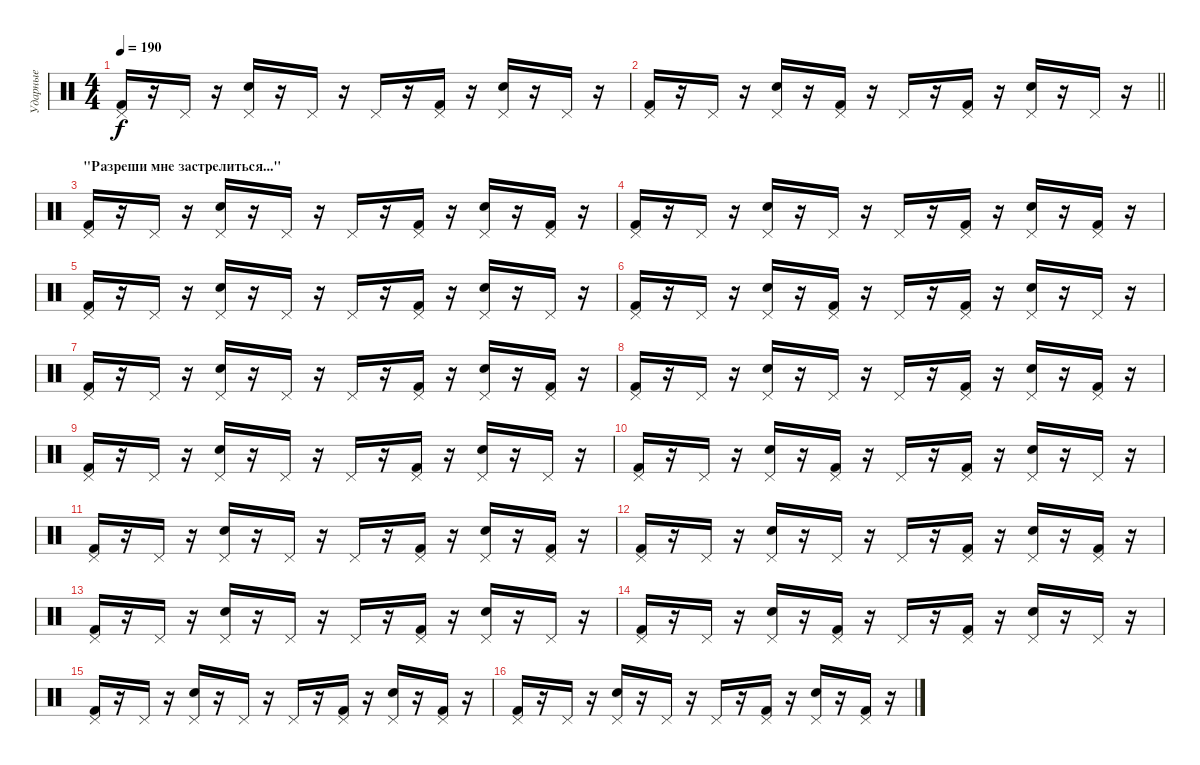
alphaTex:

\track ("Ударные" "Ударные") {instrument percussion}
\staff {score}
\articulation defaults
\ts (4 4)
\tempo 190
\clef neutral
\ks c
("Pedal Hi-Hat (hit)" "Kick (hit) 2").16{dy f} r.16 "Pedal Hi-Hat (hit)".16 r.16 ("Pedal Hi-Hat (hit)" "Electric Snare (hit)").16 r.16 "Pedal Hi-Hat (hit)".16 r.16 "Pedal Hi-Hat (hit)".16 r.16 ("Pedal Hi-Hat (hit)" "Kick (hit) 2").16 r.16 ("Pedal Hi-Hat (hit)" "Electric Snare (hit)").16 r.16 "Pedal Hi-Hat (hit)".16 r.16 |
\barLineRight lightlight
("Pedal Hi-Hat (hit)" "Kick (hit) 2").16 r.16 "Pedal Hi-Hat (hit)".16 r.16 ("Pedal Hi-Hat (hit)" "Electric Snare (hit)").16 r.16 ("Pedal Hi-Hat (hit)" "Kick (hit) 2").16 r.16 "Pedal Hi-Hat (hit)".16 r.16 ("Pedal Hi-Hat (hit)" "Kick (hit) 2").16 r.16 ("Pedal Hi-Hat (hit)" "Electric Snare (hit)").16 r.16 "Pedal Hi-Hat (hit)".16 r.16 |
\section ("" "\"Разреши мне застрелиться...\"")
("Pedal Hi-Hat (hit)" "Kick (hit) 2").16 r.16 "Pedal Hi-Hat (hit)".16 r.16 ("Pedal Hi-Hat (hit)" "Electric Snare (hit)").16 r.16 "Pedal Hi-Hat (hit)".16 r.16 "Pedal Hi-Hat (hit)".16 r.16 ("Pedal Hi-Hat (hit)" "Kick (hit) 2").16 r.16 ("Pedal Hi-Hat (hit)" "Electric Snare (hit)").16 r.16 ("Pedal Hi-Hat (hit)" "Kick (hit) 2").16 r.16 |
("Pedal Hi-Hat (hit)" "Kick (hit) 2").16 r.16 "Pedal Hi-Hat (hit)".16 r.16 ("Pedal Hi-Hat (hit)" "Electric Snare (hit)").16 r.16 "Pedal Hi-Hat (hit)".16 r.16 "Pedal Hi-Hat (hit)".16 r.16 ("Pedal Hi-Hat (hit)" "Kick (hit) 2").16 r.16 ("Pedal Hi-Hat (hit)" "Electric Snare (hit)").16 r.16 ("Pedal Hi-Hat (hit)" "Kick (hit) 2").16 r.16 |
("Pedal Hi-Hat (hit)" "Kick (hit) 2").16 r.16 "Pedal Hi-Hat (hit)".16 r.16 ("Pedal Hi-Hat (hit)" "Electric Snare (hit)").16 r.16 "Pedal Hi-Hat (hit)".16 r.16 "Pedal Hi-Hat (hit)".16 r.16 ("Pedal Hi-Hat (hit)" "Kick (hit) 2").16 r.16 ("Pedal Hi-Hat (hit)" "Electric Snare (hit)").16 r.16 "Pedal Hi-Hat (hit)".16 r.16 |
("Pedal Hi-Hat (hit)" "Kick (hit) 2").16 r.16 "Pedal Hi-Hat (hit)".16 r.16 ("Pedal Hi-Hat (hit)" "Electric Snare (hit)").16 r.16 ("Pedal Hi-Hat (hit)" "Kick (hit) 2").16 r.16 "Pedal Hi-Hat (hit)".16 r.16 ("Pedal Hi-Hat (hit)" "Kick (hit) 2").16 r.16 ("Pedal Hi-Hat (hit)" "Electric Snare (hit)").16 r.16 "Pedal Hi-Hat (hit)".16 r.16 |
("Pedal Hi-Hat (hit)" "Kick (hit) 2").16 r.16 "Pedal Hi-Hat (hit)".16 r.16 ("Pedal Hi-Hat (hit)" "Electric Snare (hit)").16 r.16 "Pedal Hi-Hat (hit)".16 r.16 "Pedal Hi-Hat (hit)".16 r.16 ("Pedal Hi-Hat (hit)" "Kick (hit) 2").16 r.16 ("Pedal Hi-Hat (hit)" "Electric Snare (hit)").16 r.16 ("Pedal Hi-Hat (hit)" "Kick (hit) 2").16 r.16 |
("Pedal Hi-Hat (hit)" "Kick (hit) 2").16 r.16 "Pedal Hi-Hat (hit)".16 r.16 ("Pedal Hi-Hat (hit)" "Electric Snare (hit)").16 r.16 "Pedal Hi-Hat (hit)".16 r.16 "Pedal Hi-Hat (hit)".16 r.16 ("Pedal Hi-Hat (hit)" "Kick (hit) 2").16 r.16 ("Pedal Hi-Hat (hit)" "Electric Snare (hit)").16 r.16 ("Pedal Hi-Hat (hit)" "Kick (hit) 2").16 r.16 |
("Pedal Hi-Hat (hit)" "Kick (hit) 2").16 r.16 "Pedal Hi-Hat (hit)".16 r.16 ("Pedal Hi-Hat (hit)" "Electric Snare (hit)").16 r.16 "Pedal Hi-Hat (hit)".16 r.16 "Pedal Hi-Hat (hit)".16 r.16 ("Pedal Hi-Hat (hit)" "Kick (hit) 2").16 r.16 ("Pedal Hi-Hat (hit)" "Electric Snare (hit)").16 r.16 "Pedal Hi-Hat (hit)".16 r.16 |
("Pedal Hi-Hat (hit)" "Kick (hit) 2").16 r.16 "Pedal Hi-Hat (hit)".16 r.16 ("Pedal Hi-Hat (hit)" "Electric Snare (hit)").16 r.16 ("Pedal Hi-Hat (hit)" "Kick (hit) 2").16 r.16 "Pedal Hi-Hat (hit)".16 r.16 ("Pedal Hi-Hat (hit)" "Kick (hit) 2").16 r.16 ("Pedal Hi-Hat (hit)" "Electric Snare (hit)").16 r.16 "Pedal Hi-Hat (hit)".16 r.16 |
("Pedal Hi-Hat (hit)" "Kick (hit) 2").16 r.16 "Pedal Hi-Hat (hit)".16 r.16 ("Pedal Hi-Hat (hit)" "Electric Snare (hit)").16 r.16 "Pedal Hi-Hat (hit)".16 r.16 "Pedal Hi-Hat (hit)".16 r.16 ("Pedal Hi-Hat (hit)" "Kick (hit) 2").16 r.16 ("Pedal Hi-Hat (hit)" "Electric Snare (hit)").16 r.16 ("Pedal Hi-Hat (hit)" "Kick (hit) 2").16 r.16 |
("Pedal Hi-Hat (hit)" "Kick (hit) 2").16 r.16 "Pedal Hi-Hat (hit)".16 r.16 ("Pedal Hi-Hat (hit)" "Electric Snare (hit)").16 r.16 "Pedal Hi-Hat (hit)".16 r.16 "Pedal Hi-Hat (hit)".16 r.16 ("Pedal Hi-Hat (hit)" "Kick (hit) 2").16 r.16 ("Pedal Hi-Hat (hit)" "Electric Snare (hit)").16 r.16 ("Pedal Hi-Hat (hit)" "Kick (hit) 2").16 r.16 |
("Pedal Hi-Hat (hit)" "Kick (hit) 2").16 r.16 "Pedal Hi-Hat (hit)".16 r.16 ("Pedal Hi-Hat (hit)" "Electric Snare (hit)").16 r.16 "Pedal Hi-Hat (hit)".16 r.16 "Pedal Hi-Hat (hit)".16 r.16 ("Pedal Hi-Hat (hit)" "Kick (hit) 2").16 r.16 ("Pedal Hi-Hat (hit)" "Electric Snare (hit)").16 r.16 "Pedal Hi-Hat (hit)".16 r.16 |
("Pedal Hi-Hat (hit)" "Kick (hit) 2").16 r.16 "Pedal Hi-Hat (hit)".16 r.16 ("Pedal Hi-Hat (hit)" "Electric Snare (hit)").16 r.16 ("Pedal Hi-Hat (hit)" "Kick (hit) 2").16 r.16 "Pedal Hi-Hat (hit)".16 r.16 ("Pedal Hi-Hat (hit)" "Kick (hit) 2").16 r.16 ("Pedal Hi-Hat (hit)" "Electric Snare (hit)").16 r.16 "Pedal Hi-Hat (hit)".16 r.16 |
("Pedal Hi-Hat (hit)" "Kick (hit) 2").16 r.16 "Pedal Hi-Hat (hit)".16 r.16 ("Pedal Hi-Hat (hit)" "Electric Snare (hit)").16 r.16 "Pedal Hi-Hat (hit)".16 r.16 "Pedal Hi-Hat (hit)".16 r.16 ("Pedal Hi-Hat (hit)" "Kick (hit) 2").16 r.16 ("Pedal Hi-Hat (hit)" "Electric Snare (hit)").16 r.16 ("Pedal Hi-Hat (hit)" "Kick (hit) 2").16 r.16 |
("Pedal Hi-Hat (hit)" "Kick (hit) 2").16 r.16 "Pedal Hi-Hat (hit)".16 r.16 ("Pedal Hi-Hat (hit)" "Electric Snare (hit)").16 r.16 "Pedal Hi-Hat (hit)".16 r.16 "Pedal Hi-Hat (hit)".16 r.16 ("Pedal Hi-Hat (hit)" "Kick (hit) 2").16 r.16 ("Pedal Hi-Hat (hit)" "Electric Snare (hit)").16 r.16 ("Pedal Hi-Hat (hit)" "Kick (hit) 2").16 r.16
